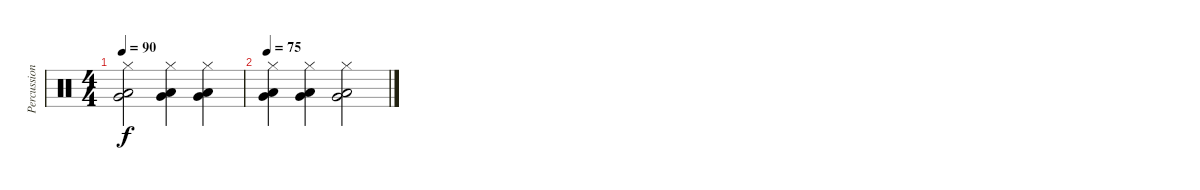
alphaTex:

\track ("Percussion" "Percussion") {instrument percussion}
\staff {score}
\articulation defaults
\ts (4 4)
\tempo 90
\clef neutral
\ks c
("Hi-Hat (closed)" "Very Low Tom (hit)" "Low Floor Tom (hit)").2{dy f} ("Hi-Hat (closed)" "Very Low Tom (hit)" "Low Floor Tom (hit)").4 ("Hi-Hat (closed)" "Very Low Tom (hit)" "Low Floor Tom (hit)").4 |
\tempo 75
("Hi-Hat (closed)" "Very Low Tom (hit)" "Low Floor Tom (hit)").4 ("Hi-Hat (closed)" "Very Low Tom (hit)" "Low Floor Tom (hit)").4 ("Hi-Hat (closed)" "Very Low Tom (hit)" "Low Floor Tom (hit)").2
